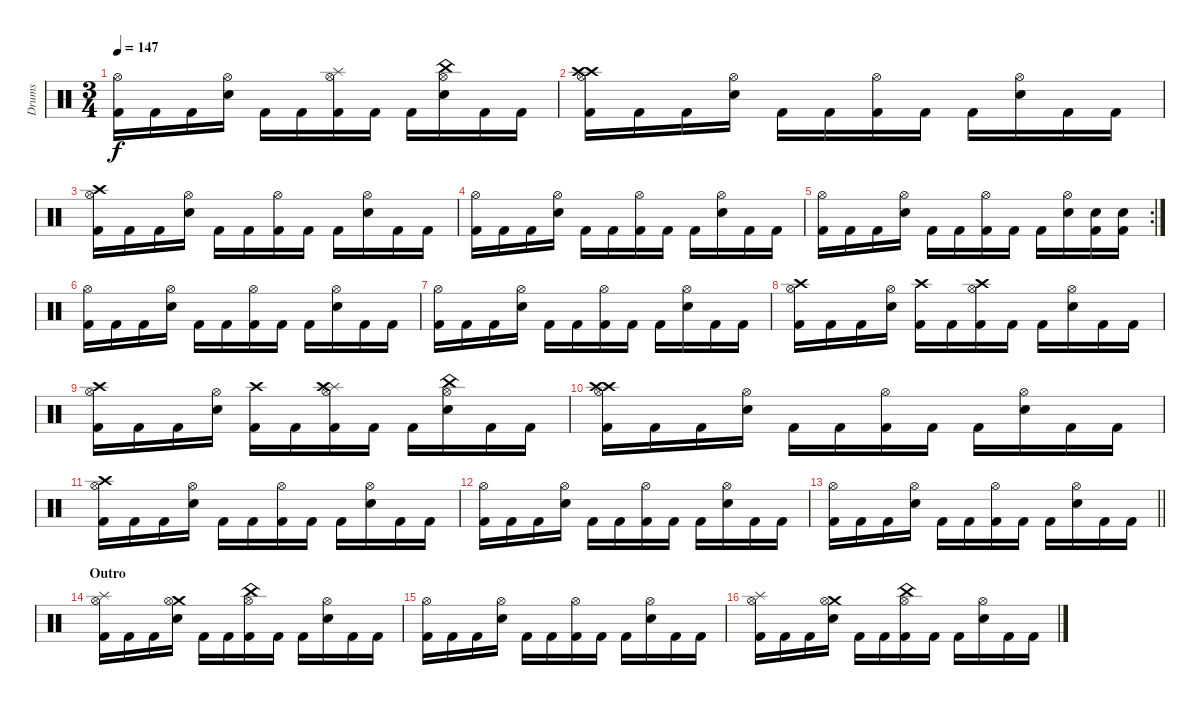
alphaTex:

\track ("Drums" "Drums") {instrument percussion}
\staff {score}
\articulation defaults
\ts (3 4)
\tempo 147
\clef neutral
\ks c
("Kick (hit) 2" "Hi-Hat (open)").16{dy f} "Kick (hit) 2".16 "Kick (hit) 2".16 ("Snare (hit) 2" "Hi-Hat (open)").16 "Kick (hit) 2".16 "Kick (hit) 2".16 ("Kick (hit) 2" "Splash (hit)" "Hi-Hat (open)").16 "Kick (hit) 2".16 "Kick (hit) 2".16 ("Snare (hit) 2" "China (hit)" "Hi-Hat (open)").16 "Kick (hit) 2".16 "Kick (hit) 2".16 |
("Kick (hit) 2" "Crash high (hit)" "Hi-Hat (open)" "Crash high (hit)").16 "Kick (hit) 2".16 "Kick (hit) 2".16 ("Snare (hit) 2" "Hi-Hat (open)").16 "Kick (hit) 2".16 "Kick (hit) 2".16 ("Kick (hit) 2" "Hi-Hat (open)").16 "Kick (hit) 2".16 "Kick (hit) 2".16 ("Snare (hit) 2" "Hi-Hat (open)").16 "Kick (hit) 2".16 "Kick (hit) 2".16 |
("Kick (hit) 2" "Crash high (hit)" "Hi-Hat (open)").16 "Kick (hit) 2".16 "Kick (hit) 2".16 ("Snare (hit) 2" "Hi-Hat (open)").16 "Kick (hit) 2".16 "Kick (hit) 2".16 ("Kick (hit) 2" "Hi-Hat (open)").16 "Kick (hit) 2".16 "Kick (hit) 2".16 ("Snare (hit) 2" "Hi-Hat (open)").16 "Kick (hit) 2".16 "Kick (hit) 2".16 |
("Kick (hit) 2" "Hi-Hat (open)").16 "Kick (hit) 2".16 "Kick (hit) 2".16 ("Snare (hit) 2" "Hi-Hat (open)").16 "Kick (hit) 2".16 "Kick (hit) 2".16 ("Kick (hit) 2" "Hi-Hat (open)").16 "Kick (hit) 2".16 "Kick (hit) 2".16 ("Snare (hit) 2" "Hi-Hat (open)").16 "Kick (hit) 2".16 "Kick (hit) 2".16 |
\rc 2
("Kick (hit) 2" "Hi-Hat (open)").16 "Kick (hit) 2".16 "Kick (hit) 2".16 ("Snare (hit) 2" "Hi-Hat (open)").16 "Kick (hit) 2".16 "Kick (hit) 2".16 ("Kick (hit) 2" "Hi-Hat (open)").16 "Kick (hit) 2".16 "Kick (hit) 2".16 ("Snare (hit) 2" "Hi-Hat (open)").16 ("Kick (hit) 2" "Snare (hit) 2").16 ("Kick (hit) 2" "Snare (hit) 2").16 |
("Kick (hit) 2" "Hi-Hat (open)").16 "Kick (hit) 2".16 "Kick (hit) 2".16 ("Snare (hit) 2" "Hi-Hat (open)").16 "Kick (hit) 2".16 "Kick (hit) 2".16 ("Kick (hit) 2" "Hi-Hat (open)").16 "Kick (hit) 2".16 "Kick (hit) 2".16 ("Snare (hit) 2" "Hi-Hat (open)").16 "Kick (hit) 2".16 "Kick (hit) 2".16 |
("Kick (hit) 2" "Hi-Hat (open)").16 "Kick (hit) 2".16 "Kick (hit) 2".16 ("Snare (hit) 2" "Hi-Hat (open)").16 "Kick (hit) 2".16 "Kick (hit) 2".16 ("Kick (hit) 2" "Hi-Hat (open)").16 "Kick (hit) 2".16 "Kick (hit) 2".16 ("Snare (hit) 2" "Hi-Hat (open)").16 "Kick (hit) 2".16 "Kick (hit) 2".16 |
("Kick (hit) 2" "Crash high (hit)" "Hi-Hat (open)").16 "Kick (hit) 2".16 "Kick (hit) 2".16 ("Snare (hit) 2" "Hi-Hat (open)").16 ("Kick (hit) 2" "Crash high (hit)").16 "Kick (hit) 2".16 ("Kick (hit) 2" "Crash high (hit)" "Hi-Hat (open)").16 "Kick (hit) 2".16 "Kick (hit) 2".16 ("Snare (hit) 2" "Hi-Hat (open)").16 "Kick (hit) 2".16 "Kick (hit) 2".16 |
("Kick (hit) 2" "Crash high (hit)" "Hi-Hat (open)").16 "Kick (hit) 2".16 "Kick (hit) 2".16 ("Snare (hit) 2" "Hi-Hat (open)").16 ("Kick (hit) 2" "Crash high (hit)").16 "Kick (hit) 2".16 ("Kick (hit) 2" "Splash (hit)" "Hi-Hat (open)" "Crash high (hit)").16 "Kick (hit) 2".16 "Kick (hit) 2".16 ("Snare (hit) 2" "China (hit)" "Hi-Hat (open)").16 "Kick (hit) 2".16 "Kick (hit) 2".16 |
("Kick (hit) 2" "Crash high (hit)" "Hi-Hat (open)" "Crash high (hit)").16 "Kick (hit) 2".16 "Kick (hit) 2".16 ("Snare (hit) 2" "Hi-Hat (open)").16 "Kick (hit) 2".16 "Kick (hit) 2".16 ("Kick (hit) 2" "Hi-Hat (open)").16 "Kick (hit) 2".16 "Kick (hit) 2".16 ("Snare (hit) 2" "Hi-Hat (open)").16 "Kick (hit) 2".16 "Kick (hit) 2".16 |
("Kick (hit) 2" "Crash high (hit)" "Hi-Hat (open)").16 "Kick (hit) 2".16 "Kick (hit) 2".16 ("Snare (hit) 2" "Hi-Hat (open)").16 "Kick (hit) 2".16 "Kick (hit) 2".16 ("Kick (hit) 2" "Hi-Hat (open)").16 "Kick (hit) 2".16 "Kick (hit) 2".16 ("Snare (hit) 2" "Hi-Hat (open)").16 "Kick (hit) 2".16 "Kick (hit) 2".16 |
("Kick (hit) 2" "Hi-Hat (open)").16 "Kick (hit) 2".16 "Kick (hit) 2".16 ("Snare (hit) 2" "Hi-Hat (open)").16 "Kick (hit) 2".16 "Kick (hit) 2".16 ("Kick (hit) 2" "Hi-Hat (open)").16 "Kick (hit) 2".16 "Kick (hit) 2".16 ("Snare (hit) 2" "Hi-Hat (open)").16 "Kick (hit) 2".16 "Kick (hit) 2".16 |
\barLineRight lightlight
("Kick (hit) 2" "Hi-Hat (open)").16 "Kick (hit) 2".16 "Kick (hit) 2".16 ("Snare (hit) 2" "Hi-Hat (open)").16 "Kick (hit) 2".16 "Kick (hit) 2".16 ("Kick (hit) 2" "Hi-Hat (open)").16 "Kick (hit) 2".16 "Kick (hit) 2".16 ("Snare (hit) 2" "Hi-Hat (open)").16 "Kick (hit) 2".16 "Kick (hit) 2".16 |
\section ("" "Outro")
("Kick (hit) 2" "Splash (hit)" "Hi-Hat (open)").16 "Kick (hit) 2".16 "Kick (hit) 2".16 ("Snare (hit) 2" "Crash medium (hit)" "Hi-Hat (open)").16 "Kick (hit) 2".16 "Kick (hit) 2".16 ("Kick (hit) 2" "China (hit)" "Hi-Hat (open)").16 "Kick (hit) 2".16 "Kick (hit) 2".16 ("Snare (hit) 2" "Hi-Hat (open)").16 "Kick (hit) 2".16 "Kick (hit) 2".16 |
("Kick (hit) 2" "Hi-Hat (open)").16 "Kick (hit) 2".16 "Kick (hit) 2".16 ("Snare (hit) 2" "Hi-Hat (open)").16 "Kick (hit) 2".16 "Kick (hit) 2".16 ("Kick (hit) 2" "Hi-Hat (open)").16 "Kick (hit) 2".16 "Kick (hit) 2".16 ("Snare (hit) 2" "Hi-Hat (open)").16 "Kick (hit) 2".16 "Kick (hit) 2".16 |
("Kick (hit) 2" "Splash (hit)" "Hi-Hat (open)").16 "Kick (hit) 2".16 "Kick (hit) 2".16 ("Snare (hit) 2" "Crash medium (hit)" "Hi-Hat (open)").16 "Kick (hit) 2".16 "Kick (hit) 2".16 ("Kick (hit) 2" "China (hit)" "Hi-Hat (open)").16 "Kick (hit) 2".16 "Kick (hit) 2".16 ("Snare (hit) 2" "Hi-Hat (open)").16 "Kick (hit) 2".16 "Kick (hit) 2".16
